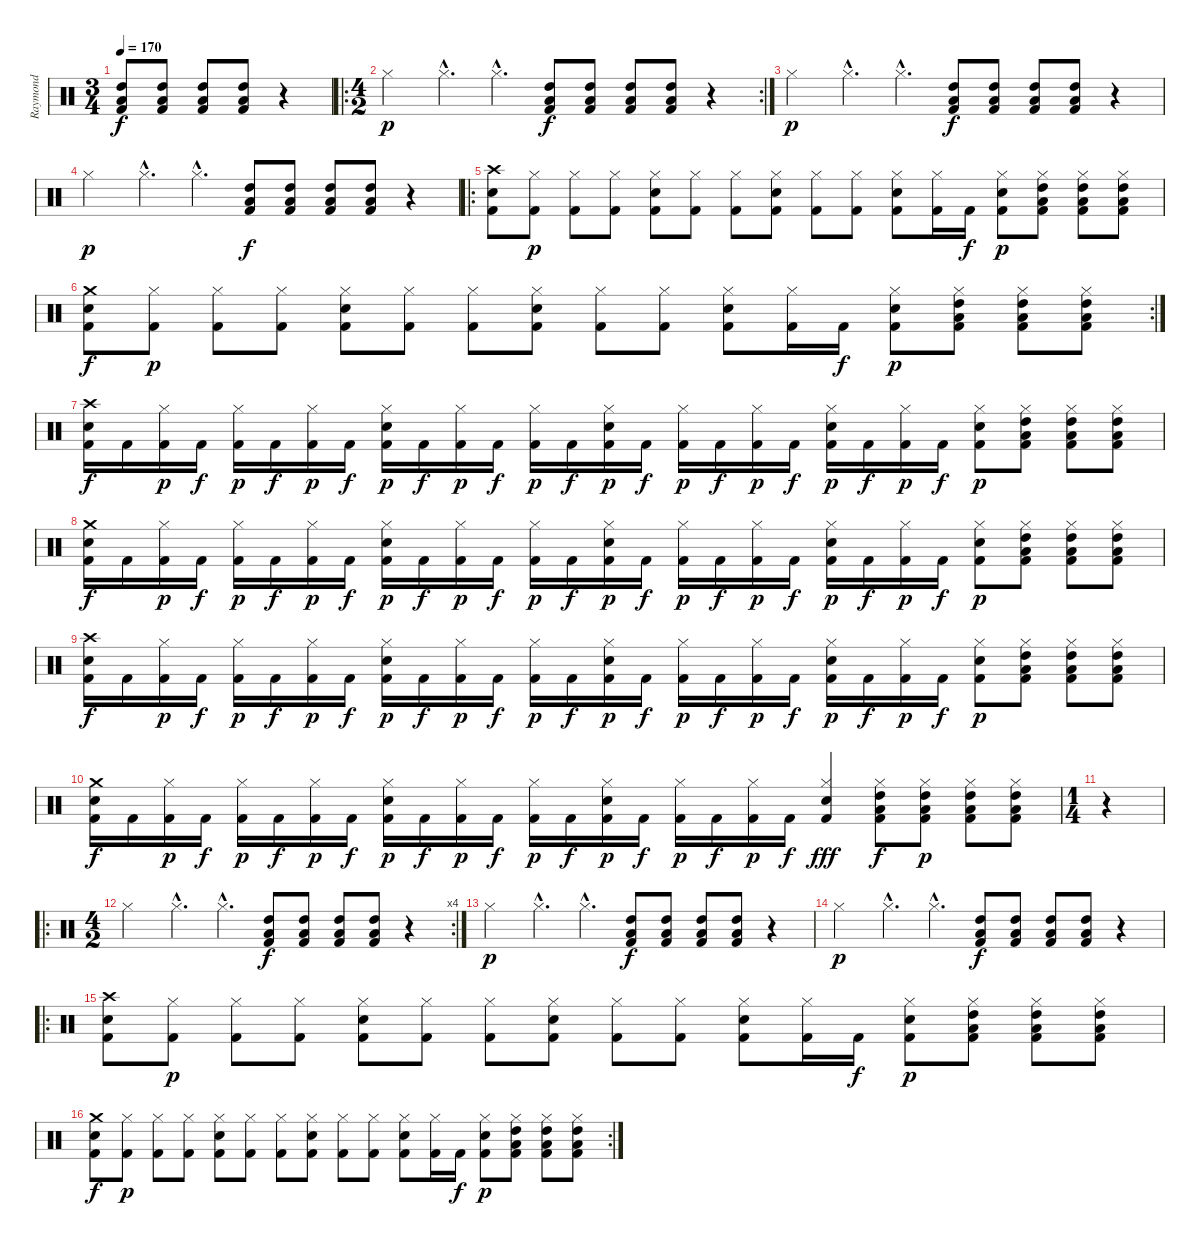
\track ("Raymond" "Raymond") {instrument percussion}
\staff {score}
\articulation defaults
\ts (3 4)
\tempo 170
\clef neutral
\ks c
("High Tom (hit)" "Low Tom (hit)" "Kick (hit) 2").8{dy f} ("High Tom (hit)" "Low Tom (hit)" "Kick (hit) 2").8 ("High Tom (hit)" "Low Tom (hit)" "Kick (hit) 2").8 ("High Tom (hit)" "Low Tom (hit)" "Kick (hit) 2").8 r.4 |
\ro
\rc 2
\ts (4 2)
"Hi-Hat (closed)".2{dy p} "Hi-Hat (closed)"{hac}.4{d} "Hi-Hat (closed)"{hac}.4{d} ("High Tom (hit)" "Low Tom (hit)" "Kick (hit) 2").8{dy f} ("High Tom (hit)" "Low Tom (hit)" "Kick (hit) 2").8 ("High Tom (hit)" "Low Tom (hit)" "Kick (hit) 2").8 ("High Tom (hit)" "Low Tom (hit)" "Kick (hit) 2").8 r.4 |
"Hi-Hat (closed)".2{dy p} "Hi-Hat (closed)"{hac}.4{d} "Hi-Hat (closed)"{hac}.4{d} ("High Tom (hit)" "Low Tom (hit)" "Kick (hit) 2").8{dy f} ("High Tom (hit)" "Low Tom (hit)" "Kick (hit) 2").8 ("High Tom (hit)" "Low Tom (hit)" "Kick (hit) 2").8 ("High Tom (hit)" "Low Tom (hit)" "Kick (hit) 2").8 r.4 |
"Hi-Hat (closed)".2{dy p} "Hi-Hat (closed)"{hac}.4{d} "Hi-Hat (closed)"{hac}.4{d} ("High Tom (hit)" "Low Tom (hit)" "Kick (hit) 2").8{dy f} ("High Tom (hit)" "Low Tom (hit)" "Kick (hit) 2").8 ("High Tom (hit)" "Low Tom (hit)" "Kick (hit) 2").8 ("High Tom (hit)" "Low Tom (hit)" "Kick (hit) 2").8 r.4 |
\ro
("Crash high (hit)" "Electric Snare (hit)" "Kick (hit) 2").8 ("Hi-Hat (closed)" "Kick (hit) 2").8{dy p} ("Hi-Hat (closed)" "Kick (hit) 2").8 ("Hi-Hat (closed)" "Kick (hit) 2").8 ("Hi-Hat (closed)" "Electric Snare (hit)" "Kick (hit) 2").8 ("Hi-Hat (closed)" "Kick (hit) 2").8 ("Hi-Hat (closed)" "Kick (hit) 2").8 ("Hi-Hat (closed)" "Electric Snare (hit)" "Kick (hit) 2").8 ("Hi-Hat (closed)" "Kick (hit) 2").8 ("Hi-Hat (closed)" "Kick (hit) 2").8 ("Hi-Hat (closed)" "Electric Snare (hit)" "Kick (hit) 2").8 ("Hi-Hat (closed)" "Kick (hit) 2").16 "Kick (hit) 2".16{dy f} ("Hi-Hat (closed)" "Electric Snare (hit)" "Kick (hit) 2").8{dy p} ("Hi-Hat (closed)" "High Tom (hit)" "Low Tom (hit)" "Kick (hit) 2").8 ("Hi-Hat (closed)" "High Tom (hit)" "Low Tom (hit)" "Kick (hit) 2").8 ("Hi-Hat (closed)" "High Tom (hit)" "Low Tom (hit)" "Kick (hit) 2").8 |
\rc 2
("Crash medium (hit)" "Electric Snare (hit)" "Kick (hit) 2").8{dy f} ("Hi-Hat (closed)" "Kick (hit) 2").8{dy p} ("Hi-Hat (closed)" "Kick (hit) 2").8 ("Hi-Hat (closed)" "Kick (hit) 2").8 ("Hi-Hat (closed)" "Electric Snare (hit)" "Kick (hit) 2").8 ("Hi-Hat (closed)" "Kick (hit) 2").8 ("Hi-Hat (closed)" "Kick (hit) 2").8 ("Hi-Hat (closed)" "Electric Snare (hit)" "Kick (hit) 2").8 ("Hi-Hat (closed)" "Kick (hit) 2").8 ("Hi-Hat (closed)" "Kick (hit) 2").8 ("Hi-Hat (closed)" "Electric Snare (hit)" "Kick (hit) 2").8 ("Hi-Hat (closed)" "Kick (hit) 2").16 "Kick (hit) 2".16{dy f} ("Hi-Hat (closed)" "Electric Snare (hit)" "Kick (hit) 2").8{dy p} ("Hi-Hat (closed)" "High Tom (hit)" "Low Tom (hit)" "Kick (hit) 2").8 ("Hi-Hat (closed)" "High Tom (hit)" "Low Tom (hit)" "Kick (hit) 2").8 ("Hi-Hat (closed)" "High Tom (hit)" "Low Tom (hit)" "Kick (hit) 2").8 |
("Crash high (hit)" "Electric Snare (hit)" "Kick (hit) 2").16{dy f} "Kick (hit) 2".16 ("Hi-Hat (closed)" "Kick (hit) 2").16{dy p} "Kick (hit) 2".16{dy f} ("Hi-Hat (closed)" "Kick (hit) 2").16{dy p} "Kick (hit) 2".16{dy f} ("Hi-Hat (closed)" "Kick (hit) 2").16{dy p} "Kick (hit) 2".16{dy f} ("Hi-Hat (closed)" "Electric Snare (hit)" "Kick (hit) 2").16{dy p} "Kick (hit) 2".16{dy f} ("Hi-Hat (closed)" "Kick (hit) 2").16{dy p} "Kick (hit) 2".16{dy f} ("Hi-Hat (closed)" "Kick (hit) 2").16{dy p} "Kick (hit) 2".16{dy f} ("Hi-Hat (closed)" "Electric Snare (hit)" "Kick (hit) 2").16{dy p} "Kick (hit) 2".16{dy f} ("Hi-Hat (closed)" "Kick (hit) 2").16{dy p} "Kick (hit) 2".16{dy f} ("Hi-Hat (closed)" "Kick (hit) 2").16{dy p} "Kick (hit) 2".16{dy f} ("Hi-Hat (closed)" "Electric Snare (hit)" "Kick (hit) 2").16{dy p} "Kick (hit) 2".16{dy f} ("Hi-Hat (closed)" "Kick (hit) 2").16{dy p} "Kick (hit) 2".16{dy f} ("Hi-Hat (closed)" "Electric Snare (hit)" "Kick (hit) 2").8{dy p} ("Hi-Hat (closed)" "High Tom (hit)" "Low Tom (hit)" "Kick (hit) 2").8 ("Hi-Hat (closed)" "High Tom (hit)" "Low Tom (hit)" "Kick (hit) 2").8 ("Hi-Hat (closed)" "High Tom (hit)" "Low Tom (hit)" "Kick (hit) 2").8 |
("Crash medium (hit)" "Electric Snare (hit)" "Kick (hit) 2").16{dy f} "Kick (hit) 2".16 ("Hi-Hat (closed)" "Kick (hit) 2").16{dy p} "Kick (hit) 2".16{dy f} ("Hi-Hat (closed)" "Kick (hit) 2").16{dy p} "Kick (hit) 2".16{dy f} ("Hi-Hat (closed)" "Kick (hit) 2").16{dy p} "Kick (hit) 2".16{dy f} ("Hi-Hat (closed)" "Electric Snare (hit)" "Kick (hit) 2").16{dy p} "Kick (hit) 2".16{dy f} ("Hi-Hat (closed)" "Kick (hit) 2").16{dy p} "Kick (hit) 2".16{dy f} ("Hi-Hat (closed)" "Kick (hit) 2").16{dy p} "Kick (hit) 2".16{dy f} ("Hi-Hat (closed)" "Electric Snare (hit)" "Kick (hit) 2").16{dy p} "Kick (hit) 2".16{dy f} ("Hi-Hat (closed)" "Kick (hit) 2").16{dy p} "Kick (hit) 2".16{dy f} ("Hi-Hat (closed)" "Kick (hit) 2").16{dy p} "Kick (hit) 2".16{dy f} ("Hi-Hat (closed)" "Electric Snare (hit)" "Kick (hit) 2").16{dy p} "Kick (hit) 2".16{dy f} ("Hi-Hat (closed)" "Kick (hit) 2").16{dy p} "Kick (hit) 2".16{dy f} ("Hi-Hat (closed)" "Electric Snare (hit)" "Kick (hit) 2").8{dy p} ("Hi-Hat (closed)" "High Tom (hit)" "Low Tom (hit)" "Kick (hit) 2").8 ("Hi-Hat (closed)" "High Tom (hit)" "Low Tom (hit)" "Kick (hit) 2").8 ("Hi-Hat (closed)" "High Tom (hit)" "Low Tom (hit)" "Kick (hit) 2").8 |
("Crash high (hit)" "Electric Snare (hit)" "Kick (hit) 2").16{dy f} "Kick (hit) 2".16 ("Hi-Hat (closed)" "Kick (hit) 2").16{dy p} "Kick (hit) 2".16{dy f} ("Hi-Hat (closed)" "Kick (hit) 2").16{dy p} "Kick (hit) 2".16{dy f} ("Hi-Hat (closed)" "Kick (hit) 2").16{dy p} "Kick (hit) 2".16{dy f} ("Hi-Hat (closed)" "Electric Snare (hit)" "Kick (hit) 2").16{dy p} "Kick (hit) 2".16{dy f} ("Hi-Hat (closed)" "Kick (hit) 2").16{dy p} "Kick (hit) 2".16{dy f} ("Hi-Hat (closed)" "Kick (hit) 2").16{dy p} "Kick (hit) 2".16{dy f} ("Hi-Hat (closed)" "Electric Snare (hit)" "Kick (hit) 2").16{dy p} "Kick (hit) 2".16{dy f} ("Hi-Hat (closed)" "Kick (hit) 2").16{dy p} "Kick (hit) 2".16{dy f} ("Hi-Hat (closed)" "Kick (hit) 2").16{dy p} "Kick (hit) 2".16{dy f} ("Hi-Hat (closed)" "Electric Snare (hit)" "Kick (hit) 2").16{dy p} "Kick (hit) 2".16{dy f} ("Hi-Hat (closed)" "Kick (hit) 2").16{dy p} "Kick (hit) 2".16{dy f} ("Hi-Hat (closed)" "Electric Snare (hit)" "Kick (hit) 2").8{dy p} ("Hi-Hat (closed)" "High Tom (hit)" "Low Tom (hit)" "Kick (hit) 2").8 ("Hi-Hat (closed)" "High Tom (hit)" "Low Tom (hit)" "Kick (hit) 2").8 ("Hi-Hat (closed)" "High Tom (hit)" "Low Tom (hit)" "Kick (hit) 2").8 |
("Crash medium (hit)" "Electric Snare (hit)" "Kick (hit) 2").16{dy f} "Kick (hit) 2".16 ("Hi-Hat (closed)" "Kick (hit) 2").16{dy p} "Kick (hit) 2".16{dy f} ("Hi-Hat (closed)" "Kick (hit) 2").16{dy p} "Kick (hit) 2".16{dy f} ("Hi-Hat (closed)" "Kick (hit) 2").16{dy p} "Kick (hit) 2".16{dy f} ("Hi-Hat (closed)" "Electric Snare (hit)" "Kick (hit) 2").16{dy p} "Kick (hit) 2".16{dy f} ("Hi-Hat (closed)" "Kick (hit) 2").16{dy p} "Kick (hit) 2".16{dy f} ("Hi-Hat (closed)" "Kick (hit) 2").16{dy p} "Kick (hit) 2".16{dy f} ("Hi-Hat (closed)" "Electric Snare (hit)" "Kick (hit) 2").16{dy p} "Kick (hit) 2".16{dy f} ("Hi-Hat (closed)" "Kick (hit) 2").16{dy p} "Kick (hit) 2".16{dy f} ("Hi-Hat (closed)" "Kick (hit) 2").16{dy p} "Kick (hit) 2".16{dy f} ("Hi-Hat (closed)" "Electric Snare (hit)" "Kick (hit) 2").4{dy fff} ("Hi-Hat (closed)" "High Tom (hit)" "Low Tom (hit)" "Kick (hit) 2").8{dy f} ("Hi-Hat (closed)" "High Tom (hit)" "Low Tom (hit)" "Kick (hit) 2").8{dy p} ("Hi-Hat (closed)" "High Tom (hit)" "Low Tom (hit)" "Kick (hit) 2").8 ("Hi-Hat (closed)" "High Tom (hit)" "Low Tom (hit)" "Kick (hit) 2").8 |
\ts (1 4)
r.4 |
\ro
\rc 4
\ts (4 2)
"Hi-Hat (closed)".2 "Hi-Hat (closed)"{hac}.4{d} "Hi-Hat (closed)"{hac}.4{d} ("High Tom (hit)" "Low Tom (hit)" "Kick (hit) 2").8{dy f} ("High Tom (hit)" "Low Tom (hit)" "Kick (hit) 2").8 ("High Tom (hit)" "Low Tom (hit)" "Kick (hit) 2").8 ("High Tom (hit)" "Low Tom (hit)" "Kick (hit) 2").8 r.4 |
"Hi-Hat (closed)".2{dy p} "Hi-Hat (closed)"{hac}.4{d} "Hi-Hat (closed)"{hac}.4{d} ("High Tom (hit)" "Low Tom (hit)" "Kick (hit) 2").8{dy f} ("High Tom (hit)" "Low Tom (hit)" "Kick (hit) 2").8 ("High Tom (hit)" "Low Tom (hit)" "Kick (hit) 2").8 ("High Tom (hit)" "Low Tom (hit)" "Kick (hit) 2").8 r.4 |
"Hi-Hat (closed)".2{dy p} "Hi-Hat (closed)"{hac}.4{d} "Hi-Hat (closed)"{hac}.4{d} ("High Tom (hit)" "Low Tom (hit)" "Kick (hit) 2").8{dy f} ("High Tom (hit)" "Low Tom (hit)" "Kick (hit) 2").8 ("High Tom (hit)" "Low Tom (hit)" "Kick (hit) 2").8 ("High Tom (hit)" "Low Tom (hit)" "Kick (hit) 2").8 r.4 |
\ro
("Crash high (hit)" "Electric Snare (hit)" "Kick (hit) 2").8 ("Hi-Hat (closed)" "Kick (hit) 2").8{dy p} ("Hi-Hat (closed)" "Kick (hit) 2").8 ("Hi-Hat (closed)" "Kick (hit) 2").8 ("Hi-Hat (closed)" "Electric Snare (hit)" "Kick (hit) 2").8 ("Hi-Hat (closed)" "Kick (hit) 2").8 ("Hi-Hat (closed)" "Kick (hit) 2").8 ("Hi-Hat (closed)" "Electric Snare (hit)" "Kick (hit) 2").8 ("Hi-Hat (closed)" "Kick (hit) 2").8 ("Hi-Hat (closed)" "Kick (hit) 2").8 ("Hi-Hat (closed)" "Electric Snare (hit)" "Kick (hit) 2").8 ("Hi-Hat (closed)" "Kick (hit) 2").16 "Kick (hit) 2".16{dy f} ("Hi-Hat (closed)" "Electric Snare (hit)" "Kick (hit) 2").8{dy p} ("Hi-Hat (closed)" "High Tom (hit)" "Low Tom (hit)" "Kick (hit) 2").8 ("Hi-Hat (closed)" "High Tom (hit)" "Low Tom (hit)" "Kick (hit) 2").8 ("Hi-Hat (closed)" "High Tom (hit)" "Low Tom (hit)" "Kick (hit) 2").8 |
\rc 2
("Crash medium (hit)" "Electric Snare (hit)" "Kick (hit) 2").8{dy f} ("Hi-Hat (closed)" "Kick (hit) 2").8{dy p} ("Hi-Hat (closed)" "Kick (hit) 2").8 ("Hi-Hat (closed)" "Kick (hit) 2").8 ("Hi-Hat (closed)" "Electric Snare (hit)" "Kick (hit) 2").8 ("Hi-Hat (closed)" "Kick (hit) 2").8 ("Hi-Hat (closed)" "Kick (hit) 2").8 ("Hi-Hat (closed)" "Electric Snare (hit)" "Kick (hit) 2").8 ("Hi-Hat (closed)" "Kick (hit) 2").8 ("Hi-Hat (closed)" "Kick (hit) 2").8 ("Hi-Hat (closed)" "Electric Snare (hit)" "Kick (hit) 2").8 ("Hi-Hat (closed)" "Kick (hit) 2").16 "Kick (hit) 2".16{dy f} ("Hi-Hat (closed)" "Electric Snare (hit)" "Kick (hit) 2").8{dy p} ("Hi-Hat (closed)" "High Tom (hit)" "Low Tom (hit)" "Kick (hit) 2").8 ("Hi-Hat (closed)" "High Tom (hit)" "Low Tom (hit)" "Kick (hit) 2").8 ("Hi-Hat (closed)" "High Tom (hit)" "Low Tom (hit)" "Kick (hit) 2").8
